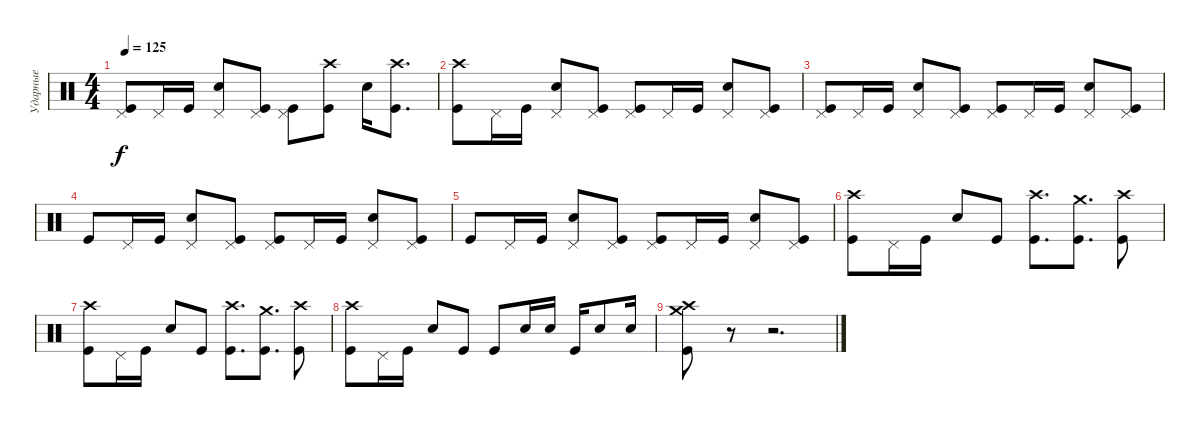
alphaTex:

\track ("Ударные" "Ударные") {instrument percussion}
\staff {score}
\articulation defaults
\ts (4 4)
\tempo 125
\clef neutral
\ks c
("Kick (hit)" "Pedal Hi-Hat (hit)").8{dy f} "Pedal Hi-Hat (hit)".16 "Kick (hit)".16 ("Pedal Hi-Hat (hit)" "Snare (hit) 2").8 ("Kick (hit)" "Pedal Hi-Hat (hit)").8 ("Kick (hit)" "Pedal Hi-Hat (hit)").8 ("Kick (hit)" "Crash high (hit)").8 "Snare (hit) 2".16 ("Kick (hit)" "Crash high (hit)").8{d} |
("Kick (hit)" "Crash high (hit)").8 "Pedal Hi-Hat (hit)".16 "Kick (hit)".16 ("Pedal Hi-Hat (hit)" "Snare (hit) 2").8 ("Kick (hit)" "Pedal Hi-Hat (hit)").8 ("Kick (hit)" "Pedal Hi-Hat (hit)").8 "Pedal Hi-Hat (hit)".16 "Kick (hit)".16 ("Pedal Hi-Hat (hit)" "Snare (hit) 2").8 ("Kick (hit)" "Pedal Hi-Hat (hit)").8 |
("Kick (hit)" "Pedal Hi-Hat (hit)").8 "Pedal Hi-Hat (hit)".16 "Kick (hit)".16 ("Pedal Hi-Hat (hit)" "Snare (hit) 2").8 ("Kick (hit)" "Pedal Hi-Hat (hit)").8 ("Kick (hit)" "Pedal Hi-Hat (hit)").8 "Pedal Hi-Hat (hit)".16 "Kick (hit)".16 ("Pedal Hi-Hat (hit)" "Snare (hit) 2").8 ("Kick (hit)" "Pedal Hi-Hat (hit)").8 |
"Kick (hit)".8 "Pedal Hi-Hat (hit)".16 "Kick (hit)".16 ("Pedal Hi-Hat (hit)" "Snare (hit) 2").8 ("Kick (hit)" "Pedal Hi-Hat (hit)").8 ("Kick (hit)" "Pedal Hi-Hat (hit)").8 "Pedal Hi-Hat (hit)".16 "Kick (hit)".16 ("Pedal Hi-Hat (hit)" "Snare (hit) 2").8 ("Kick (hit)" "Pedal Hi-Hat (hit)").8 |
"Kick (hit)".8 "Pedal Hi-Hat (hit)".16 "Kick (hit)".16 ("Pedal Hi-Hat (hit)" "Snare (hit) 2").8 ("Kick (hit)" "Pedal Hi-Hat (hit)").8 ("Kick (hit)" "Pedal Hi-Hat (hit)").8 "Pedal Hi-Hat (hit)".16 "Kick (hit)".16 ("Pedal Hi-Hat (hit)" "Snare (hit) 2").8 ("Kick (hit)" "Pedal Hi-Hat (hit)").8 |
("Kick (hit)" "Crash high (hit)").8 "Pedal Hi-Hat (hit)".16 "Kick (hit)".16 "Snare (hit) 2".8 "Kick (hit)".8 ("Kick (hit)" "Crash high (hit)").8{d} ("Kick (hit)" "Crash medium (hit)").8{d} ("Kick (hit)" "Crash high (hit)").8 |
("Kick (hit)" "Crash high (hit)").8 "Pedal Hi-Hat (hit)".16 "Kick (hit)".16 "Snare (hit) 2".8 "Kick (hit)".8 ("Kick (hit)" "Crash high (hit)").8{d} ("Kick (hit)" "Crash medium (hit)").8{d} ("Kick (hit)" "Crash high (hit)").8 |
("Kick (hit)" "Crash high (hit)").8 "Pedal Hi-Hat (hit)".16 "Kick (hit)".16 "Snare (hit) 2".8 "Kick (hit)".8 "Kick (hit)".8 "Snare (hit) 2".16 "Snare (hit) 2".16 "Kick (hit)".16 "Snare (hit) 2".8 "Snare (hit) 2".16 |
("Kick (hit)" "Crash medium (hit)" "Crash high (hit)").8 r.8 r.2{d}
